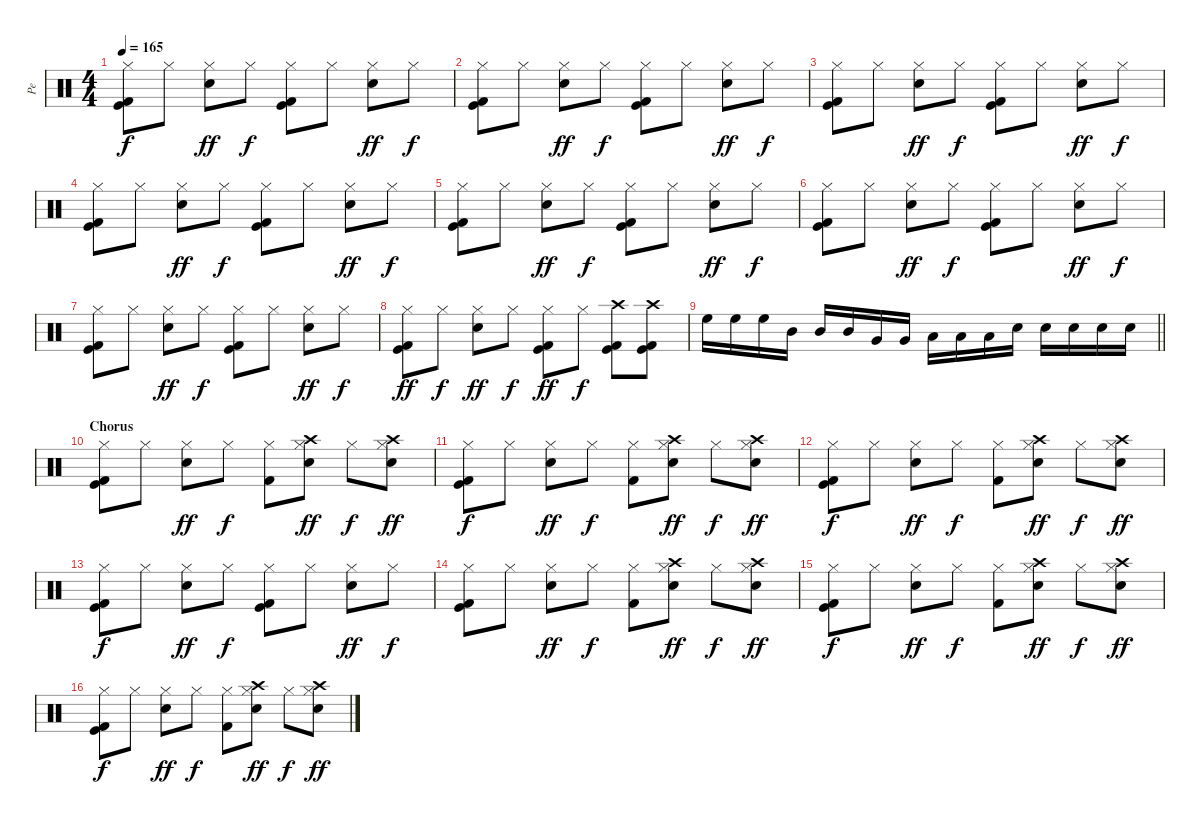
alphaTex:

\track ("Pe" "Pe") {instrument percussion}
\staff {score}
\articulation defaults
\ts (4 4)
\tempo 165
\clef neutral
\ks c
("Kick (hit)" "Hi-Hat (closed)" "Kick (hit) 2").8{dy f} "Hi-Hat (closed)".8 ("Electric Snare (hit)" "Hi-Hat (closed)").8{dy ff} "Hi-Hat (closed)".8{dy f} ("Kick (hit)" "Hi-Hat (closed)" "Kick (hit) 2").8 "Hi-Hat (closed)".8 ("Electric Snare (hit)" "Hi-Hat (closed)").8{dy ff} "Hi-Hat (closed)".8{dy f} |
("Kick (hit)" "Hi-Hat (closed)" "Kick (hit) 2").8 "Hi-Hat (closed)".8 ("Electric Snare (hit)" "Hi-Hat (closed)").8{dy ff} "Hi-Hat (closed)".8{dy f} ("Kick (hit)" "Hi-Hat (closed)" "Kick (hit) 2").8 "Hi-Hat (closed)".8 ("Electric Snare (hit)" "Hi-Hat (closed)").8{dy ff} "Hi-Hat (closed)".8{dy f} |
("Kick (hit)" "Hi-Hat (closed)" "Kick (hit) 2").8 "Hi-Hat (closed)".8 ("Electric Snare (hit)" "Hi-Hat (closed)").8{dy ff} "Hi-Hat (closed)".8{dy f} ("Kick (hit)" "Hi-Hat (closed)" "Kick (hit) 2").8 "Hi-Hat (closed)".8 ("Electric Snare (hit)" "Hi-Hat (closed)").8{dy ff} "Hi-Hat (closed)".8{dy f} |
("Kick (hit)" "Hi-Hat (closed)" "Kick (hit) 2").8 "Hi-Hat (closed)".8 ("Electric Snare (hit)" "Hi-Hat (closed)").8{dy ff} "Hi-Hat (closed)".8{dy f} ("Kick (hit)" "Hi-Hat (closed)" "Kick (hit) 2").8 "Hi-Hat (closed)".8 ("Electric Snare (hit)" "Hi-Hat (closed)").8{dy ff} "Hi-Hat (closed)".8{dy f} |
("Kick (hit)" "Hi-Hat (closed)" "Kick (hit) 2").8 "Hi-Hat (closed)".8 ("Electric Snare (hit)" "Hi-Hat (closed)").8{dy ff} "Hi-Hat (closed)".8{dy f} ("Kick (hit)" "Hi-Hat (closed)" "Kick (hit) 2").8 "Hi-Hat (closed)".8 ("Electric Snare (hit)" "Hi-Hat (closed)").8{dy ff} "Hi-Hat (closed)".8{dy f} |
("Kick (hit)" "Hi-Hat (closed)" "Kick (hit) 2").8 "Hi-Hat (closed)".8 ("Electric Snare (hit)" "Hi-Hat (closed)").8{dy ff} "Hi-Hat (closed)".8{dy f} ("Kick (hit)" "Hi-Hat (closed)" "Kick (hit) 2").8 "Hi-Hat (closed)".8 ("Electric Snare (hit)" "Hi-Hat (closed)").8{dy ff} "Hi-Hat (closed)".8{dy f} |
("Kick (hit)" "Hi-Hat (closed)" "Kick (hit) 2").8 "Hi-Hat (closed)".8 ("Electric Snare (hit)" "Hi-Hat (closed)").8{dy ff} "Hi-Hat (closed)".8{dy f} ("Kick (hit)" "Hi-Hat (closed)" "Kick (hit) 2").8 "Hi-Hat (closed)".8 ("Electric Snare (hit)" "Hi-Hat (closed)").8{dy ff} "Hi-Hat (closed)".8{dy f} |
("Kick (hit)" "Hi-Hat (closed)" "Kick (hit) 2").8{dy ff} "Hi-Hat (closed)".8{dy f} ("Electric Snare (hit)" "Hi-Hat (closed)").8{dy ff} "Hi-Hat (closed)".8{dy f} ("Kick (hit)" "Hi-Hat (closed)" "Kick (hit) 2").8{dy ff} "Hi-Hat (closed)".8{dy f} ("Crash high (hit)" "Kick (hit)" "Kick (hit) 2").8 ("Crash high (hit)" "Kick (hit)" "Kick (hit) 2").8 |
\barLineRight lightlight "High Floor Tom (hit)".16 "High Floor Tom (hit)".16 "High Floor Tom (hit)".16 "Mid Tom (hit)".16 "Mid Tom (hit)".16 "Mid Tom (hit)".16 "Very Low Tom (hit)".16 "Very Low Tom (hit)".16 "Low Floor Tom (hit)".16 "Low Floor Tom (hit)".16 "Low Floor Tom (hit)".16 "Electric Snare (hit)".16 "Electric Snare (hit)".16 "Electric Snare (hit)".16 "Electric Snare (hit)".16 "Electric Snare (hit)".16
|
\section ("" "Chorus")
("Kick (hit)" "Hi-Hat (closed)" "Kick (hit) 2").8 "Hi-Hat (closed)".8 ("Electric Snare (hit)" "Hi-Hat (closed)").8{dy ff} "Hi-Hat (closed)".8{dy f} ("Hi-Hat (closed)" "Kick (hit) 2").8 ("Crash high (hit)" "Electric Snare (hit)" "Hi-Hat (closed)").8{dy ff} "Hi-Hat (closed)".8{dy f} ("Crash high (hit)" "Electric Snare (hit)" "Hi-Hat (closed)").8{dy ff} |
("Kick (hit)" "Hi-Hat (closed)" "Kick (hit) 2").8{dy f} "Hi-Hat (closed)".8 ("Electric Snare (hit)" "Hi-Hat (closed)").8{dy ff} "Hi-Hat (closed)".8{dy f} ("Hi-Hat (closed)" "Kick (hit) 2").8 ("Crash high (hit)" "Electric Snare (hit)" "Hi-Hat (closed)").8{dy ff} "Hi-Hat (closed)".8{dy f} ("Crash high (hit)" "Electric Snare (hit)" "Hi-Hat (closed)").8{dy ff} |
("Kick (hit)" "Hi-Hat (closed)" "Kick (hit) 2").8{dy f} "Hi-Hat (closed)".8 ("Electric Snare (hit)" "Hi-Hat (closed)").8{dy ff} "Hi-Hat (closed)".8{dy f} ("Hi-Hat (closed)" "Kick (hit) 2").8 ("Crash high (hit)" "Electric Snare (hit)" "Hi-Hat (closed)").8{dy ff} "Hi-Hat (closed)".8{dy f} ("Crash high (hit)" "Electric Snare (hit)" "Hi-Hat (closed)").8{dy ff} |
("Kick (hit)" "Hi-Hat (closed)" "Kick (hit) 2").8{dy f} "Hi-Hat (closed)".8 ("Electric Snare (hit)" "Hi-Hat (closed)").8{dy ff} "Hi-Hat (closed)".8{dy f} ("Kick (hit)" "Hi-Hat (closed)" "Kick (hit) 2").8 "Hi-Hat (closed)".8 ("Electric Snare (hit)" "Hi-Hat (closed)").8{dy ff} "Hi-Hat (closed)".8{dy f} |
("Kick (hit)" "Hi-Hat (closed)" "Kick (hit) 2").8 "Hi-Hat (closed)".8 ("Electric Snare (hit)" "Hi-Hat (closed)").8{dy ff} "Hi-Hat (closed)".8{dy f} ("Hi-Hat (closed)" "Kick (hit) 2").8 ("Crash high (hit)" "Electric Snare (hit)" "Hi-Hat (closed)").8{dy ff} "Hi-Hat (closed)".8{dy f} ("Crash high (hit)" "Electric Snare (hit)" "Hi-Hat (closed)").8{dy ff} |
("Kick (hit)" "Hi-Hat (closed)" "Kick (hit) 2").8{dy f} "Hi-Hat (closed)".8 ("Electric Snare (hit)" "Hi-Hat (closed)").8{dy ff} "Hi-Hat (closed)".8{dy f} ("Hi-Hat (closed)" "Kick (hit) 2").8 ("Crash high (hit)" "Electric Snare (hit)" "Hi-Hat (closed)").8{dy ff} "Hi-Hat (closed)".8{dy f} ("Crash high (hit)" "Electric Snare (hit)" "Hi-Hat (closed)").8{dy ff} |
("Kick (hit)" "Hi-Hat (closed)" "Kick (hit) 2").8{dy f} "Hi-Hat (closed)".8 ("Electric Snare (hit)" "Hi-Hat (closed)").8{dy ff} "Hi-Hat (closed)".8{dy f} ("Hi-Hat (closed)" "Kick (hit) 2").8 ("Crash high (hit)" "Electric Snare (hit)" "Hi-Hat (closed)").8{dy ff} "Hi-Hat (closed)".8{dy f} ("Crash high (hit)" "Electric Snare (hit)" "Hi-Hat (closed)").8{dy ff}
